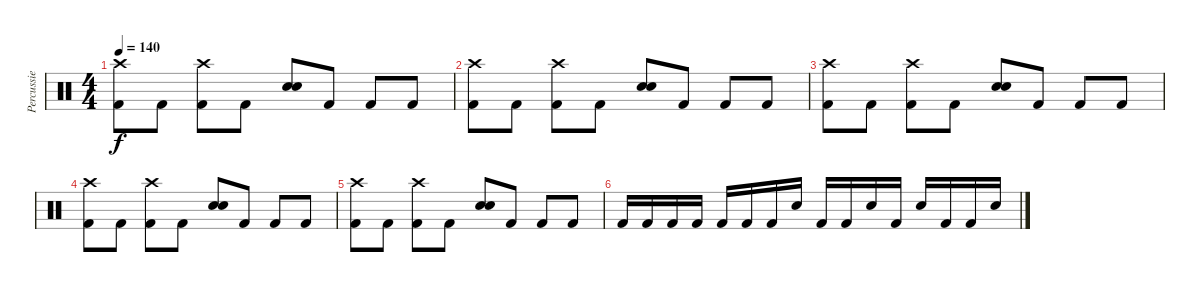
\track ("Percussie" "Percussie") {instrument percussion}
\staff {score}
\articulation defaults
\ts (4 4)
\tempo 140
\clef neutral
\ks c
("Crash high (hit)" "Kick (hit) 2").8{dy f} "Kick (hit) 2".8 ("Crash high (hit)" "Kick (hit) 2").8 "Kick (hit) 2".8 ("Snare (hit) 2" "Snare (hit) 2").8{bd 480} "Kick (hit) 2".8 "Kick (hit) 2".8 "Kick (hit) 2".8 |
("Crash high (hit)" "Kick (hit) 2").8 "Kick (hit) 2".8 ("Crash high (hit)" "Kick (hit) 2").8 "Kick (hit) 2".8 ("Snare (hit) 2" "Snare (hit) 2").8{bd 480} "Kick (hit) 2".8 "Kick (hit) 2".8 "Kick (hit) 2".8 |
("Crash high (hit)" "Kick (hit) 2").8 "Kick (hit) 2".8 ("Crash high (hit)" "Kick (hit) 2").8 "Kick (hit) 2".8 ("Snare (hit) 2" "Snare (hit) 2").8{bd 480} "Kick (hit) 2".8 "Kick (hit) 2".8 "Kick (hit) 2".8 |
("Crash high (hit)" "Kick (hit) 2").8 "Kick (hit) 2".8 ("Crash high (hit)" "Kick (hit) 2").8 "Kick (hit) 2".8 ("Snare (hit) 2" "Snare (hit) 2").8{bd 480} "Kick (hit) 2".8 "Kick (hit) 2".8 "Kick (hit) 2".8 |
("Crash high (hit)" "Kick (hit) 2").8 "Kick (hit) 2".8 ("Crash high (hit)" "Kick (hit) 2").8 "Kick (hit) 2".8 ("Snare (hit) 2" "Snare (hit) 2").8{bd 480} "Kick (hit) 2".8 "Kick (hit) 2".8 "Kick (hit) 2".8 |
"Kick (hit) 2".16 "Kick (hit) 2".16 "Kick (hit) 2".16 "Kick (hit) 2".16 "Kick (hit) 2".16 "Kick (hit) 2".16 "Kick (hit) 2".16 "Snare (hit) 2".16 "Kick (hit) 2".16 "Kick (hit) 2".16 "Snare (hit) 2".16 "Kick (hit) 2".16 "Snare (hit) 2".16 "Kick (hit) 2".16 "Kick (hit) 2".16 "Snare (hit) 2".16
